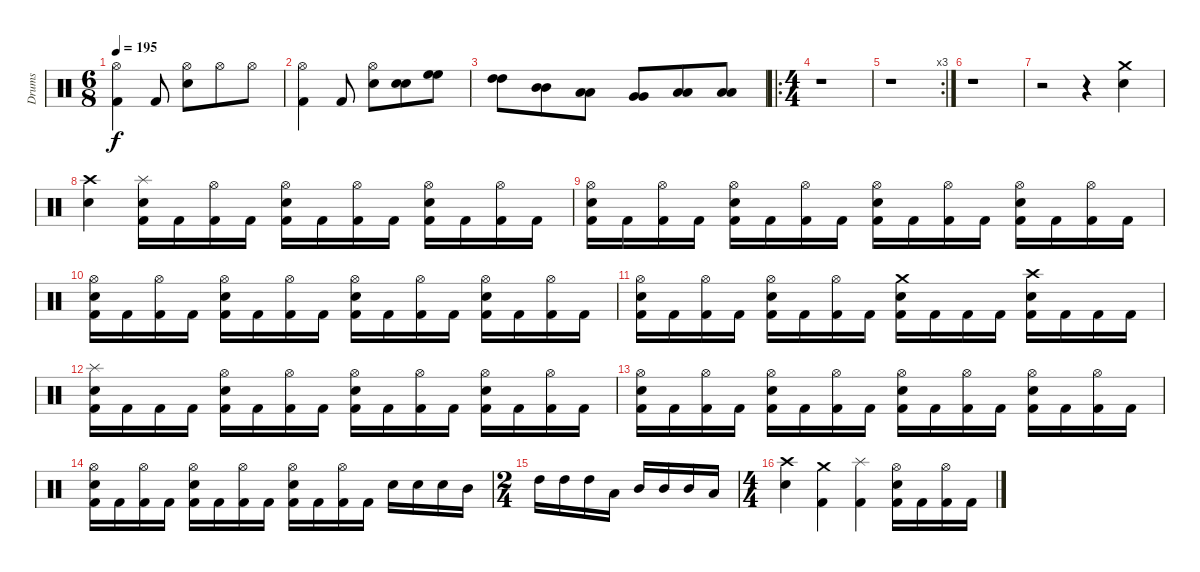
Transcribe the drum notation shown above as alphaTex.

\track ("Drums" "Drums") {instrument percussion}
\staff {score}
\articulation defaults
\ts (6 8)
\tempo 195
\clef neutral
\ks c
("Hi-Hat (open)" "Kick (hit) 2").4{dy f} "Kick (hit) 2".8 ("Hi-Hat (open)" "Electric Snare (hit)").8 "Hi-Hat (open)".8 "Hi-Hat (open)".8 |
("Hi-Hat (open)" "Kick (hit) 2").4 "Kick (hit) 2".8 ("Hi-Hat (open)" "Electric Snare (hit)").8 ("Electric Snare (hit)" "Electric Snare (hit)").8{bd 240} ("High Floor Tom (hit)" "High Floor Tom (hit)").8{bd 240} |
("High Tom (hit)" "High Tom (hit)").8{bd 240} ("Mid Tom (hit)" "Mid Tom (hit)").8{bd 240} ("Low Tom (hit)" "Low Tom (hit)").8{bd 120} ("Very Low Tom (hit)" "Very Low Tom (hit)").8{bd 120} ("Low Floor Tom (hit)" "Low Floor Tom (hit)").8{bd 120} ("Low Floor Tom (hit)" "Low Floor Tom (hit)").8{bd 120} |
\ro
\ts (4 4)
r.1 |
\rc 3
r.1 |
r.1 |
r.2 r.4 ("Crash medium (hit)" "Electric Snare (hit)").4 |
("Crash high (hit)" "Electric Snare (hit)").4 ("Splash (hit)" "Electric Snare (hit)" "Kick (hit) 2").16 "Kick (hit) 2".16 ("Hi-Hat (open)" "Kick (hit) 2").16 "Kick (hit) 2".16 ("Hi-Hat (open)" "Electric Snare (hit)" "Kick (hit) 2").16 "Kick (hit) 2".16 ("Hi-Hat (open)" "Kick (hit) 2").16 "Kick (hit) 2".16 ("Hi-Hat (open)" "Electric Snare (hit)" "Kick (hit) 2").16 "Kick (hit) 2".16 ("Hi-Hat (open)" "Kick (hit) 2").16 "Kick (hit) 2".16 |
("Hi-Hat (open)" "Electric Snare (hit)" "Kick (hit) 2").16 "Kick (hit) 2".16 ("Hi-Hat (open)" "Kick (hit) 2").16 "Kick (hit) 2".16 ("Hi-Hat (open)" "Electric Snare (hit)" "Kick (hit) 2").16 "Kick (hit) 2".16 ("Hi-Hat (open)" "Kick (hit) 2").16 "Kick (hit) 2".16 ("Hi-Hat (open)" "Electric Snare (hit)" "Kick (hit) 2").16 "Kick (hit) 2".16 ("Hi-Hat (open)" "Kick (hit) 2").16 "Kick (hit) 2".16 ("Hi-Hat (open)" "Electric Snare (hit)" "Kick (hit) 2").16 "Kick (hit) 2".16 ("Hi-Hat (open)" "Kick (hit) 2").16 "Kick (hit) 2".16 |
("Hi-Hat (open)" "Electric Snare (hit)" "Kick (hit) 2").16 "Kick (hit) 2".16 ("Hi-Hat (open)" "Kick (hit) 2").16 "Kick (hit) 2".16 ("Hi-Hat (open)" "Electric Snare (hit)" "Kick (hit) 2").16 "Kick (hit) 2".16 ("Hi-Hat (open)" "Kick (hit) 2").16 "Kick (hit) 2".16 ("Hi-Hat (open)" "Electric Snare (hit)" "Kick (hit) 2").16 "Kick (hit) 2".16 ("Hi-Hat (open)" "Kick (hit) 2").16 "Kick (hit) 2".16 ("Hi-Hat (open)" "Electric Snare (hit)" "Kick (hit) 2").16 "Kick (hit) 2".16 ("Hi-Hat (open)" "Kick (hit) 2").16 "Kick (hit) 2".16 |
("Hi-Hat (open)" "Electric Snare (hit)" "Kick (hit) 2").16 "Kick (hit) 2".16 ("Hi-Hat (open)" "Kick (hit) 2").16 "Kick (hit) 2".16 ("Hi-Hat (open)" "Electric Snare (hit)" "Kick (hit) 2").16 "Kick (hit) 2".16 ("Hi-Hat (open)" "Kick (hit) 2").16 "Kick (hit) 2".16 ("Crash medium (hit)" "Electric Snare (hit)" "Kick (hit) 2").16 "Kick (hit) 2".16 "Kick (hit) 2".16 "Kick (hit) 2".16 ("Crash high (hit)" "Electric Snare (hit)" "Kick (hit) 2").16 "Kick (hit) 2".16 "Kick (hit) 2".16 "Kick (hit) 2".16 |
("Splash (hit)" "Electric Snare (hit)" "Kick (hit) 2").16 "Kick (hit) 2".16 "Kick (hit) 2".16 "Kick (hit) 2".16 ("Hi-Hat (open)" "Electric Snare (hit)" "Kick (hit) 2").16 "Kick (hit) 2".16 ("Hi-Hat (open)" "Kick (hit) 2").16 "Kick (hit) 2".16 ("Hi-Hat (open)" "Electric Snare (hit)" "Kick (hit) 2").16 "Kick (hit) 2".16 ("Hi-Hat (open)" "Kick (hit) 2").16 "Kick (hit) 2".16 ("Hi-Hat (open)" "Electric Snare (hit)" "Kick (hit) 2").16 "Kick (hit) 2".16 ("Hi-Hat (open)" "Kick (hit) 2").16 "Kick (hit) 2".16 |
("Hi-Hat (open)" "Electric Snare (hit)" "Kick (hit) 2").16 "Kick (hit) 2".16 ("Hi-Hat (open)" "Kick (hit) 2").16 "Kick (hit) 2".16 ("Hi-Hat (open)" "Electric Snare (hit)" "Kick (hit) 2").16 "Kick (hit) 2".16 ("Hi-Hat (open)" "Kick (hit) 2").16 "Kick (hit) 2".16 ("Hi-Hat (open)" "Electric Snare (hit)" "Kick (hit) 2").16 "Kick (hit) 2".16 ("Hi-Hat (open)" "Kick (hit) 2").16 "Kick (hit) 2".16 ("Hi-Hat (open)" "Electric Snare (hit)" "Kick (hit) 2").16 "Kick (hit) 2".16 ("Hi-Hat (open)" "Kick (hit) 2").16 "Kick (hit) 2".16 |
("Hi-Hat (open)" "Electric Snare (hit)" "Kick (hit) 2").16 "Kick (hit) 2".16 ("Hi-Hat (open)" "Kick (hit) 2").16 "Kick (hit) 2".16 ("Hi-Hat (open)" "Electric Snare (hit)" "Kick (hit) 2").16 "Kick (hit) 2".16 ("Hi-Hat (open)" "Kick (hit) 2").16 "Kick (hit) 2".16 ("Hi-Hat (open)" "Electric Snare (hit)" "Kick (hit) 2").16 "Kick (hit) 2".16 ("Hi-Hat (open)" "Kick (hit) 2").16 "Kick (hit) 2".16 "Electric Snare (hit)".16 "Electric Snare (hit)".16 "Electric Snare (hit)".16 "Mid Tom (hit)".16 |
\ts (2 4)
"High Tom (hit)".16 "High Tom (hit)".16 "High Tom (hit)".16 "Low Tom (hit)".16 "Mid Tom (hit)".16 "Mid Tom (hit)".16 "Mid Tom (hit)".16 "Low Tom (hit)".16 |
\ts (4 4)
("Crash high (hit)" "Electric Snare (hit)").4 ("Crash medium (hit)" "Kick (hit) 2").4 ("Splash (hit)" "Kick (hit) 2").4 ("Hi-Hat (open)" "Electric Snare (hit)" "Kick (hit) 2").16 "Kick (hit) 2".16 ("Hi-Hat (open)" "Kick (hit) 2").16 "Kick (hit) 2".16
